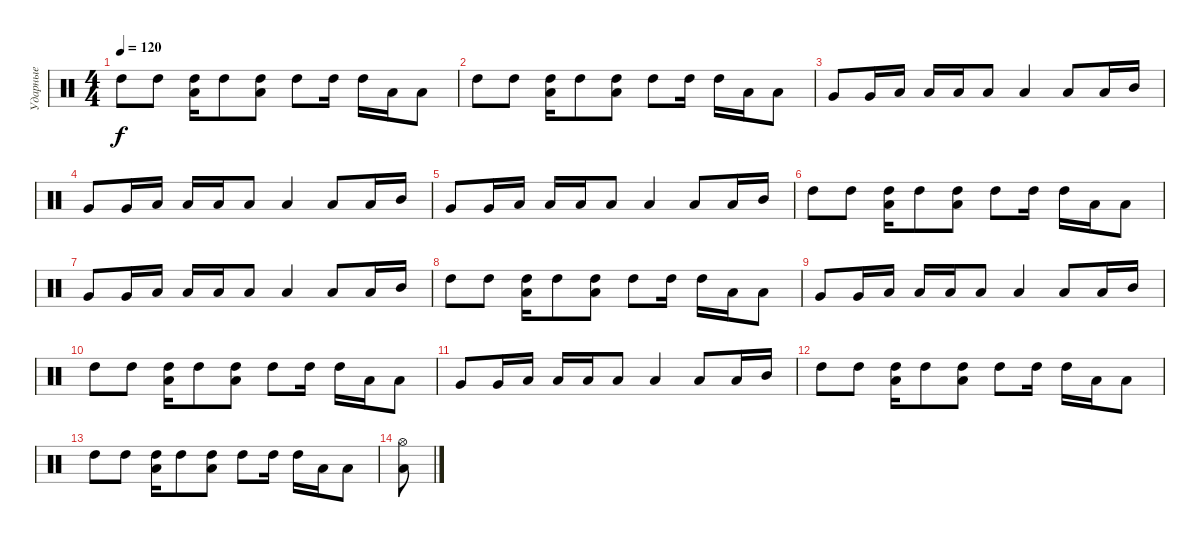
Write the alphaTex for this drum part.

\track ("Ударные" "Ударные") {instrument percussion}
\staff {score}
\articulation defaults
\ts (4 4)
\tempo 120
\clef neutral
\ks c "High Tom (hit)".8{dy f} "High Tom (hit)".8
("High Tom (hit)" "Low Floor Tom (hit)").16 "High Tom (hit)".8 ("High Tom (hit)" "Low Floor Tom (hit)").8 "High Tom (hit)".8 "High Tom (hit)".16 "High Tom (hit)".16 "Low Floor Tom (hit)".16 "Low Floor Tom (hit)".8 |
"High Tom (hit)".8 "High Tom (hit)".8 ("High Tom (hit)" "Low Floor Tom (hit)").16 "High Tom (hit)".8 ("High Tom (hit)" "Low Floor Tom (hit)").8 "High Tom (hit)".8 "High Tom (hit)".16 "High Tom (hit)".16 "Low Floor Tom (hit)".16 "Low Floor Tom (hit)".8 |
"Very Low Tom (hit)".8 "Very Low Tom (hit)".16 "Low Tom (hit)".16 "Low Floor Tom (hit)".16 "Low Floor Tom (hit)".16 "Low Floor Tom (hit)".8 "Low Floor Tom (hit)".4 "Low Floor Tom (hit)".8 "Low Floor Tom (hit)".16 "Mid Tom (hit)".16 |
"Very Low Tom (hit)".8 "Very Low Tom (hit)".16 "Low Tom (hit)".16 "Low Floor Tom (hit)".16 "Low Floor Tom (hit)".16 "Low Floor Tom (hit)".8 "Low Floor Tom (hit)".4 "Low Floor Tom (hit)".8 "Low Floor Tom (hit)".16 "Mid Tom (hit)".16 |
"Very Low Tom (hit)".8 "Very Low Tom (hit)".16 "Low Tom (hit)".16 "Low Floor Tom (hit)".16 "Low Floor Tom (hit)".16 "Low Floor Tom (hit)".8 "Low Floor Tom (hit)".4 "Low Floor Tom (hit)".8 "Low Floor Tom (hit)".16 "Mid Tom (hit)".16 |
"High Tom (hit)".8 "High Tom (hit)".8 ("High Tom (hit)" "Low Floor Tom (hit)").16 "High Tom (hit)".8 ("High Tom (hit)" "Low Floor Tom (hit)").8 "High Tom (hit)".8 "High Tom (hit)".16 "High Tom (hit)".16 "Low Floor Tom (hit)".16 "Low Floor Tom (hit)".8 |
"Very Low Tom (hit)".8 "Very Low Tom (hit)".16 "Low Tom (hit)".16 "Low Floor Tom (hit)".16 "Low Floor Tom (hit)".16 "Low Floor Tom (hit)".8 "Low Floor Tom (hit)".4 "Low Floor Tom (hit)".8 "Low Floor Tom (hit)".16 "Mid Tom (hit)".16 |
"High Tom (hit)".8 "High Tom (hit)".8 ("High Tom (hit)" "Low Floor Tom (hit)").16 "High Tom (hit)".8 ("High Tom (hit)" "Low Floor Tom (hit)").8 "High Tom (hit)".8 "High Tom (hit)".16 "High Tom (hit)".16 "Low Floor Tom (hit)".16 "Low Floor Tom (hit)".8 |
"Very Low Tom (hit)".8 "Very Low Tom (hit)".16 "Low Tom (hit)".16 "Low Floor Tom (hit)".16 "Low Floor Tom (hit)".16 "Low Floor Tom (hit)".8 "Low Floor Tom (hit)".4 "Low Floor Tom (hit)".8 "Low Floor Tom (hit)".16 "Mid Tom (hit)".16 |
"High Tom (hit)".8 "High Tom (hit)".8 ("High Tom (hit)" "Low Floor Tom (hit)").16 "High Tom (hit)".8 ("High Tom (hit)" "Low Floor Tom (hit)").8 "High Tom (hit)".8 "High Tom (hit)".16 "High Tom (hit)".16 "Low Floor Tom (hit)".16 "Low Floor Tom (hit)".8 |
"Very Low Tom (hit)".8 "Very Low Tom (hit)".16 "Low Tom (hit)".16 "Low Floor Tom (hit)".16 "Low Floor Tom (hit)".16 "Low Floor Tom (hit)".8 "Low Floor Tom (hit)".4 "Low Floor Tom (hit)".8 "Low Floor Tom (hit)".16 "Mid Tom (hit)".16 |
"High Tom (hit)".8 "High Tom (hit)".8 ("High Tom (hit)" "Low Floor Tom (hit)").16 "High Tom (hit)".8 ("High Tom (hit)" "Low Floor Tom (hit)").8 "High Tom (hit)".8 "High Tom (hit)".16 "High Tom (hit)".16 "Low Floor Tom (hit)".16 "Low Floor Tom (hit)".8 |
"High Tom (hit)".8 "High Tom (hit)".8 ("High Tom (hit)" "Low Floor Tom (hit)").16 "High Tom (hit)".8 ("High Tom (hit)" "Low Floor Tom (hit)").8 "High Tom (hit)".8 "High Tom (hit)".16 "High Tom (hit)".16 "Low Floor Tom (hit)".16 "Low Floor Tom (hit)".8 |
("Low Floor Tom (hit)" "Hi-Hat (open)").8
